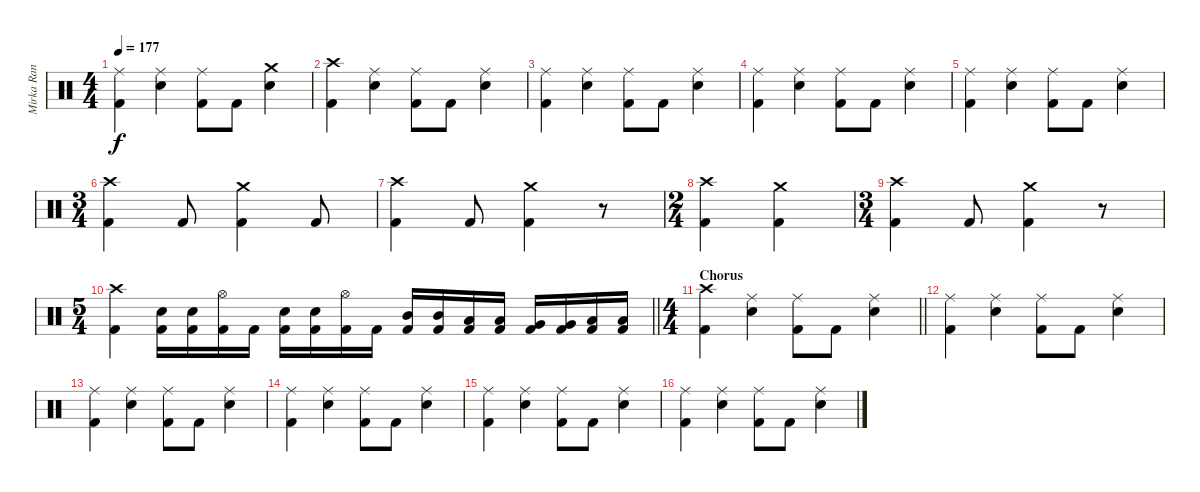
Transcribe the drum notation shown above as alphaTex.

\track (" Mirka Rantanen" " Mirka Ran") {instrument percussion}
\staff {score}
\articulation defaults
\ts (4 4)
\tempo 177
\clef neutral
\ks c
("Ride (middle)" "Kick (hit) 2").4{dy f} ("Ride (middle)" "Electric Snare (hit)").4 ("Ride (middle)" "Kick (hit) 2").8 "Kick (hit) 2".8 ("Crash medium (hit)" "Electric Snare (hit)").4 |
("Crash high (hit)" "Kick (hit) 2").4 ("Ride (middle)" "Electric Snare (hit)").4 ("Ride (middle)" "Kick (hit) 2").8 "Kick (hit) 2".8 ("Ride (middle)" "Electric Snare (hit)").4 |
("Ride (middle)" "Kick (hit) 2").4 ("Ride (middle)" "Electric Snare (hit)").4 ("Ride (middle)" "Kick (hit) 2").8 "Kick (hit) 2".8 ("Ride (middle)" "Electric Snare (hit)").4 |
("Ride (middle)" "Kick (hit) 2").4 ("Ride (middle)" "Electric Snare (hit)").4 ("Ride (middle)" "Kick (hit) 2").8 "Kick (hit) 2".8 ("Ride (middle)" "Electric Snare (hit)").4 |
("Ride (middle)" "Kick (hit) 2").4 ("Ride (middle)" "Electric Snare (hit)").4 ("Ride (middle)" "Kick (hit) 2").8 "Kick (hit) 2".8 ("Ride (middle)" "Electric Snare (hit)").4 |
\ts (3 4)
("Crash high (hit)" "Kick (hit) 2").4 "Kick (hit) 2".8 ("Crash medium (hit)" "Kick (hit) 2").4 "Kick (hit) 2".8 |
("Crash high (hit)" "Kick (hit) 2").4 "Kick (hit) 2".8 ("Crash medium (hit)" "Kick (hit) 2").4 r.8 |
\ts (2 4)
("Crash high (hit)" "Kick (hit) 2").4 ("Crash medium (hit)" "Kick (hit) 2").4 |
\ts (3 4)
("Crash high (hit)" "Kick (hit) 2").4 "Kick (hit) 2".8 ("Crash medium (hit)" "Kick (hit) 2").4 r.8 |
\ts (5 4)
\barLineRight lightlight
("Crash high (hit)" "Kick (hit) 2").4 ("Electric Snare (hit)" "Kick (hit) 2").16 ("Electric Snare (hit)" "Kick (hit) 2").16 ("Hi-Hat (open)" "Kick (hit) 2").16 "Kick (hit) 2".16 ("Electric Snare (hit)" "Kick (hit) 2").16 ("Electric Snare (hit)" "Kick (hit) 2").16 ("Hi-Hat (open)" "Kick (hit) 2").16 "Kick (hit) 2".16 ("Mid Tom (hit)" "Kick (hit) 2").16 ("Mid Tom (hit)" "Kick (hit) 2").16 ("Low Tom (hit)" "Kick (hit) 2").16 ("Low Tom (hit)" "Kick (hit) 2").16 ("Very Low Tom (hit)" "Kick (hit) 2").16 ("Very Low Tom (hit)" "Kick (hit) 2").16 ("Low Floor Tom (hit)" "Kick (hit) 2").16 ("Low Floor Tom (hit)" "Kick (hit) 2").16 |
\ts (4 4)
\section ("" "Chorus")
\barLineRight lightlight
("Crash high (hit)" "Kick (hit) 2").4 ("Ride (middle)" "Electric Snare (hit)").4 ("Ride (middle)" "Kick (hit) 2").8 "Kick (hit) 2".8 ("Ride (middle)" "Electric Snare (hit)").4 |
\section ("" "")
("Ride (middle)" "Kick (hit) 2").4 ("Ride (middle)" "Electric Snare (hit)").4 ("Ride (middle)" "Kick (hit) 2").8 "Kick (hit) 2".8 ("Ride (middle)" "Electric Snare (hit)").4 |
("Ride (middle)" "Kick (hit) 2").4 ("Ride (middle)" "Electric Snare (hit)").4 ("Ride (middle)" "Kick (hit) 2").8 "Kick (hit) 2".8 ("Ride (middle)" "Electric Snare (hit)").4 |
("Ride (middle)" "Kick (hit) 2").4 ("Ride (middle)" "Electric Snare (hit)").4 ("Ride (middle)" "Kick (hit) 2").8 "Kick (hit) 2".8 ("Ride (middle)" "Electric Snare (hit)").4 |
("Ride (middle)" "Kick (hit) 2").4 ("Ride (middle)" "Electric Snare (hit)").4 ("Ride (middle)" "Kick (hit) 2").8 "Kick (hit) 2".8 ("Ride (middle)" "Electric Snare (hit)").4 |
("Ride (middle)" "Kick (hit) 2").4 ("Ride (middle)" "Electric Snare (hit)").4 ("Ride (middle)" "Kick (hit) 2").8 "Kick (hit) 2".8 ("Ride (middle)" "Electric Snare (hit)").4
